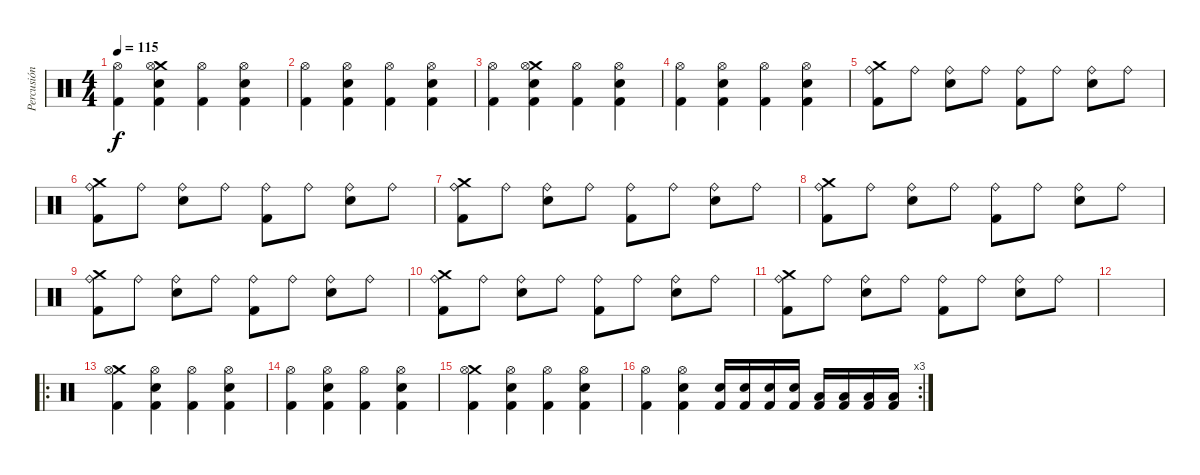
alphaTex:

\track ("Percusión" "Percusión") {instrument percussion}
\staff {score}
\articulation defaults
\ts (4 4)
\tempo 115
\clef neutral
\ks c
("Hi-Hat (open)" "Kick (hit) 2").4{dy f} ("Crash medium (hit)" "Hi-Hat (open)" "Snare (hit) 2" "Kick (hit) 2").4 ("Hi-Hat (open)" "Kick (hit) 2").4 ("Hi-Hat (open)" "Snare (hit) 2" "Kick (hit) 2").4 |
("Hi-Hat (open)" "Kick (hit) 2").4 ("Hi-Hat (open)" "Snare (hit) 2" "Kick (hit) 2").4 ("Hi-Hat (open)" "Kick (hit) 2").4 ("Hi-Hat (open)" "Snare (hit) 2" "Kick (hit) 2").4 |
("Hi-Hat (open)" "Kick (hit) 2").4 ("Crash medium (hit)" "Hi-Hat (open)" "Snare (hit) 2" "Kick (hit) 2").4 ("Hi-Hat (open)" "Kick (hit) 2").4 ("Hi-Hat (open)" "Snare (hit) 2" "Kick (hit) 2").4 |
("Hi-Hat (open)" "Kick (hit) 2").4 ("Hi-Hat (open)" "Snare (hit) 2" "Kick (hit) 2").4 ("Hi-Hat (open)" "Kick (hit) 2").4 ("Hi-Hat (open)" "Snare (hit) 2" "Kick (hit) 2").4 |
("Ride (bell)" "Crash medium (hit)" "Kick (hit) 2").8 "Ride (bell)".8 ("Ride (bell)" "Snare (hit) 2").8 "Ride (bell)".8 ("Ride (bell)" "Kick (hit) 2").8 "Ride (bell)".8 ("Ride (bell)" "Snare (hit) 2").8 "Ride (bell)".8 |
("Ride (bell)" "Crash medium (hit)" "Kick (hit) 2").8 "Ride (bell)".8 ("Ride (bell)" "Snare (hit) 2").8 "Ride (bell)".8 ("Ride (bell)" "Kick (hit) 2").8 "Ride (bell)".8 ("Ride (bell)" "Snare (hit) 2").8 "Ride (bell)".8 |
("Ride (bell)" "Crash medium (hit)" "Kick (hit) 2").8 "Ride (bell)".8 ("Ride (bell)" "Snare (hit) 2").8 "Ride (bell)".8 ("Ride (bell)" "Kick (hit) 2").8 "Ride (bell)".8 ("Ride (bell)" "Snare (hit) 2").8 "Ride (bell)".8 |
("Ride (bell)" "Crash medium (hit)" "Kick (hit) 2").8 "Ride (bell)".8 ("Ride (bell)" "Snare (hit) 2").8 "Ride (bell)".8 ("Ride (bell)" "Kick (hit) 2").8 "Ride (bell)".8 ("Ride (bell)" "Snare (hit) 2").8 "Ride (bell)".8 |
("Ride (bell)" "Crash medium (hit)" "Kick (hit) 2").8 "Ride (bell)".8 ("Ride (bell)" "Snare (hit) 2").8 "Ride (bell)".8 ("Ride (bell)" "Kick (hit) 2").8 "Ride (bell)".8 ("Ride (bell)" "Snare (hit) 2").8 "Ride (bell)".8 |
("Ride (bell)" "Crash medium (hit)" "Kick (hit) 2").8 "Ride (bell)".8 ("Ride (bell)" "Snare (hit) 2").8 "Ride (bell)".8 ("Ride (bell)" "Kick (hit) 2").8 "Ride (bell)".8 ("Ride (bell)" "Snare (hit) 2").8 "Ride (bell)".8 |
("Ride (bell)" "Crash medium (hit)" "Kick (hit) 2").8 "Ride (bell)".8 ("Ride (bell)" "Snare (hit) 2").8 "Ride (bell)".8 ("Ride (bell)" "Kick (hit) 2").8 "Ride (bell)".8 ("Ride (bell)" "Snare (hit) 2").8 "Ride (bell)".8 |
|
\ro
("Crash medium (hit)" "Hi-Hat (open)" "Kick (hit) 2").4 ("Hi-Hat (open)" "Snare (hit) 2" "Kick (hit) 2").4 ("Hi-Hat (open)" "Kick (hit) 2").4 ("Hi-Hat (open)" "Snare (hit) 2" "Kick (hit) 2").4 |
("Hi-Hat (open)" "Kick (hit) 2").4 ("Hi-Hat (open)" "Snare (hit) 2" "Kick (hit) 2").4 ("Hi-Hat (open)" "Kick (hit) 2").4 ("Hi-Hat (open)" "Snare (hit) 2" "Kick (hit) 2").4 |
("Crash medium (hit)" "Hi-Hat (open)" "Kick (hit) 2").4 ("Hi-Hat (open)" "Snare (hit) 2" "Kick (hit) 2").4 ("Hi-Hat (open)" "Kick (hit) 2").4 ("Hi-Hat (open)" "Snare (hit) 2" "Kick (hit) 2").4 |
\rc 3
("Hi-Hat (open)" "Kick (hit) 2").4 ("Hi-Hat (open)" "Snare (hit) 2" "Kick (hit) 2").4 ("Snare (hit) 2" "Kick (hit) 2").16 ("Snare (hit) 2" "Kick (hit) 2").16 ("Snare (hit) 2" "Kick (hit) 2").16 ("Snare (hit) 2" "Kick (hit) 2").16 ("Low Tom (hit)" "Kick (hit) 2").16 ("Low Tom (hit)" "Kick (hit) 2").16 ("Low Tom (hit)" "Kick (hit) 2").16 ("Low Tom (hit)" "Kick (hit) 2").16
